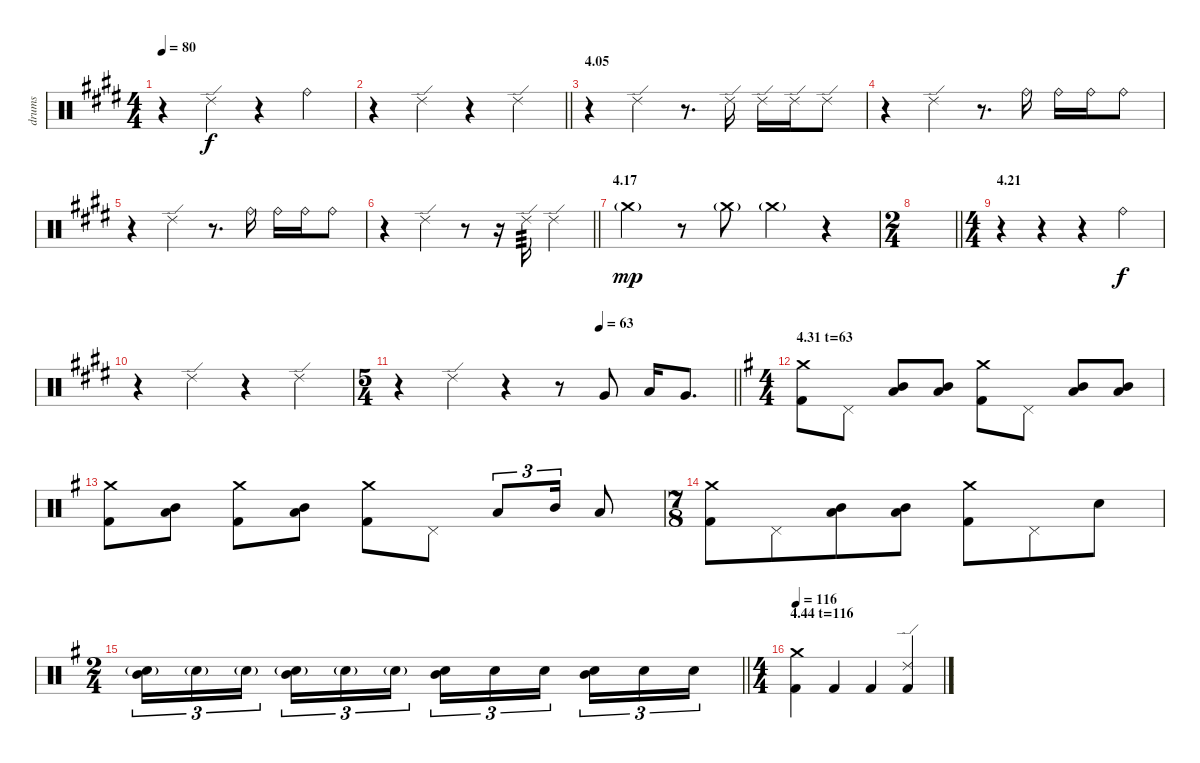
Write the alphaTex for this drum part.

\track ("drums" "drums") {instrument percussion}
\staff {score}
\articulation defaults
\ts (4 4)
\tempo 80
\clef neutral
\ks e
r.4{dy f} "Ride (edge) 2".4 r.4 "Ride (bell)".4 |
\barLineRight lightlight
r.4 "Ride (edge) 2".4 r.4 "Ride (edge) 2".4 |
\section ("" "4.05")
r.4 "Ride (edge) 2".4 r.8{d} "Ride (edge) 2".16 "Ride (edge) 2".16 "Ride (edge) 2".16 "Ride (edge) 2".8 |
r.4 "Ride (edge) 2".4 r.8{d} "Ride (bell)".16 "Ride (bell)".16 "Ride (bell)".16 "Ride (bell)".8 |
r.4 "Ride (edge) 2".4 r.8{d} "Ride (bell)".16 "Ride (bell)".16 "Ride (bell)".16 "Ride (bell)".8 |
\barLineRight lightlight
r.4 "Ride (edge) 2".4 r.8 r.16 "Ride (edge) 2".16{tp 3} "Ride (edge) 2".4 |
\section ("" "4.17")
"Crash medium (hit)"{g}.4{dy mp} r.8 "Crash medium (hit)"{g}.8 "Crash medium (hit)"{g}.4 r.4 |
\ts (2 4)
\barLineRight lightlight
|
\ts (4 4)
\section ("" "4.21")
r.4 r.4 r.4 "Ride (bell)".4{dy f} |
r.4 "Ride (edge) 2".4 r.4 "Ride (edge) 2".4 |
\ts (5 4)
\tempo (63 0.6)
\barLineRight lightlight
r.4 "Ride (edge) 2".4 r.4 r.8 "Very Low Tom (hit)".8 "Low Tom (hit)".16 "Very Low Tom (hit)".8{d} |
\ts (4 4)
\section ("" "4.31 t=63")
\ks g
("Crash medium (hit)" "Kick (hit) 2").8 "Pedal Hi-Hat (hit)".8 ("Mid Tom (hit)" "Low Tom (hit)").8 ("Mid Tom (hit)" "Low Tom (hit)").8 ("Crash medium (hit)" "Kick (hit) 2").8 "Pedal Hi-Hat (hit)".8 ("Mid Tom (hit)" "Low Tom (hit)").8 ("Mid Tom (hit)" "Low Tom (hit)").8 |
("Crash medium (hit)" "Kick (hit) 2").8 ("Mid Tom (hit)" "Low Tom (hit)").8 ("Crash medium (hit)" "Kick (hit) 2").8 ("Mid Tom (hit)" "Low Tom (hit)").8 ("Crash medium (hit)" "Kick (hit) 2").8 "Pedal Hi-Hat (hit)".8 "Low Tom (hit)".8{tu (3 2)} "Mid Tom (hit)".16{tu (3 2)} "Low Tom (hit)".8 |
\ts (7 8)
("Crash medium (hit)" "Kick (hit) 2").8 "Pedal Hi-Hat (hit)".8 ("Mid Tom (hit)" "Low Tom (hit)").8 ("Mid Tom (hit)" "Low Tom (hit)").8 ("Crash medium (hit)" "Kick (hit) 2").8 "Pedal Hi-Hat (hit)".8 "Electric Snare (hit)".8 |
\ts (2 4)
\barLineRight lightlight
("Mid Tom (hit)" "Electric Snare (hit)"{g}).16{tu (3 2)} "Electric Snare (hit)"{g}.16{tu (3 2)} "Electric Snare (hit)"{g}.16{tu (3 2) beam splitsecondary} ("Mid Tom (hit)" "Electric Snare (hit)"{g}).16{tu (3 2)} "Electric Snare (hit)"{g}.16{tu (3 2)} "Electric Snare (hit)"{g}.16{tu (3 2)} ("Mid Tom (hit)" "Electric Snare (hit)").16{tu (3 2)} "Electric Snare (hit)".16{tu (3 2)} "Electric Snare (hit)".16{tu (3 2) beam splitsecondary} ("Mid Tom (hit)" "Electric Snare (hit)").16{tu (3 2)} "Electric Snare (hit)".16{tu (3 2)} "Electric Snare (hit)".16{tu (3 2)} |
\ts (4 4)
\section ("" "4.44 t=116")
\tempo 116
("Crash medium (hit)" "Kick (hit) 2").4 "Kick (hit) 2".4 "Kick (hit) 2".4 ("Ride (edge) 2" "Kick (hit) 2").4
